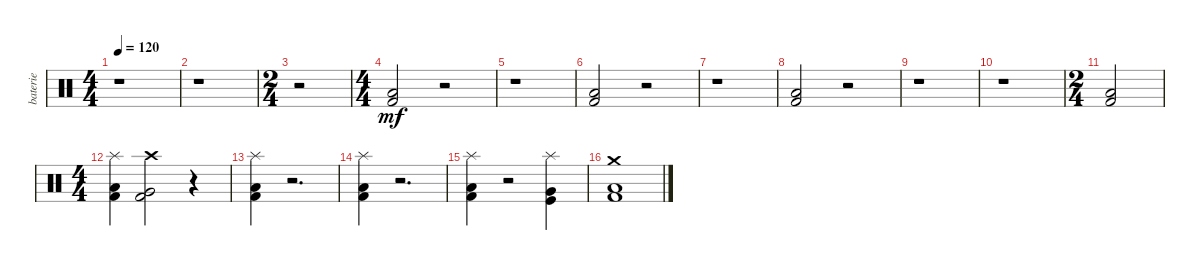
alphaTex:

\track ("baterie" "baterie") {instrument percussion}
\staff {score}
\articulation defaults
\ts (4 4)
\tempo 120
\clef neutral
\ks c
r.1{dy mf} |
r.1 |
\ts (2 4)
r.2 |
\ts (4 4)
("Kick (hit) 2" "Low Floor Tom (hit)").2 r.2 |
r.1 |
("Low Floor Tom (hit)" "Kick (hit) 2").2 r.2 |
r.1 |
("Low Floor Tom (hit)" "Kick (hit) 2").2 r.2 |
r.1 |
r.1 |
\ts (2 4)
("Low Floor Tom (hit)" "Kick (hit) 2").2 |
\ts (4 4)
("Low Floor Tom (hit)" "Kick (hit) 2" "Splash (hit)").4 ("Very Low Tom (hit)" "Kick (hit) 2" "Crash high (hit)").2 r.4 |
("Kick (hit) 2" "Low Floor Tom (hit)" "Splash (hit)").4 r.2{d} |
("Kick (hit) 2" "Low Floor Tom (hit)" "Splash (hit)").4 r.2{d} |
("Splash (hit)" "Low Floor Tom (hit)" "Kick (hit) 2").4 r.2 ("Kick (hit)" "Very Low Tom (hit)" "Splash (hit)").4 |
("Kick (hit) 2" "Low Floor Tom (hit)" "Crash medium (hit)").1
